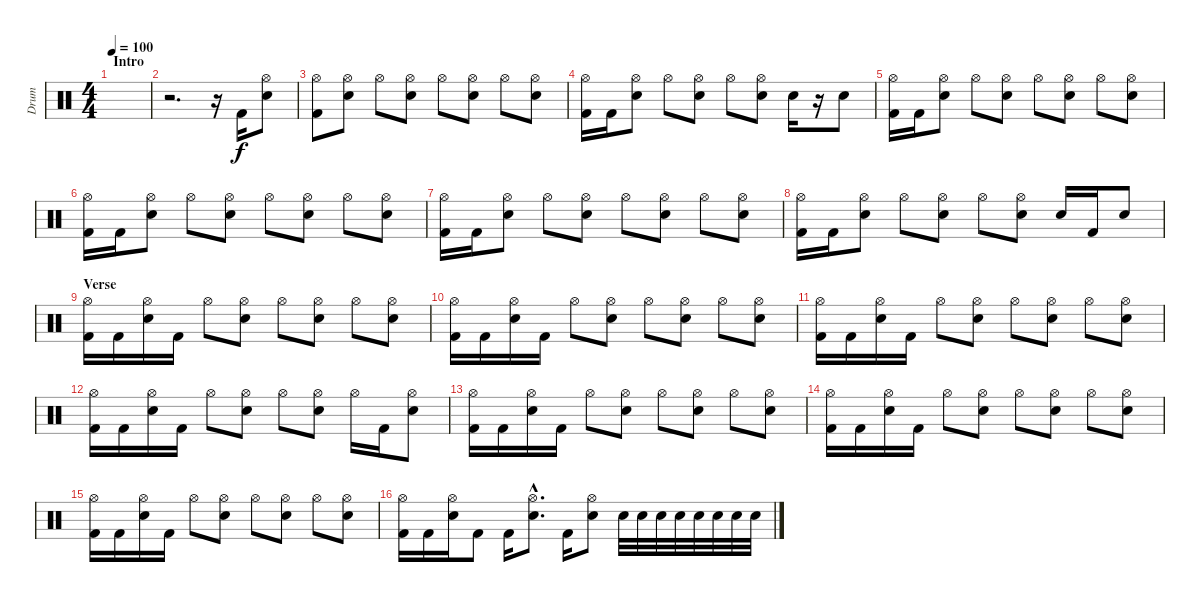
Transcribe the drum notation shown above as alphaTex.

\track ("Drum" "Drum") {instrument percussion}
\staff {score}
\articulation defaults
\ts (4 4)
\section ("" "Intro")
\tempo 100
\clef neutral
\ks c
|
r.2{d} r.16 "Kick (hit) 2".16 ("Hi-Hat (open)" "Electric Snare (hit)").8 |
("Hi-Hat (open)" "Kick (hit) 2").8 ("Hi-Hat (open)" "Electric Snare (hit)").8 "Hi-Hat (open)".8 ("Hi-Hat (open)" "Electric Snare (hit)").8 "Hi-Hat (open)".8 ("Hi-Hat (open)" "Electric Snare (hit)").8 "Hi-Hat (open)".8 ("Hi-Hat (open)" "Electric Snare (hit)").8 |
("Hi-Hat (open)" "Kick (hit) 2").16 "Kick (hit) 2".16 ("Hi-Hat (open)" "Electric Snare (hit)").8 "Hi-Hat (open)".8 ("Hi-Hat (open)" "Electric Snare (hit)").8 "Hi-Hat (open)".8 ("Hi-Hat (open)" "Electric Snare (hit)").8 "Electric Snare (hit)".16 r.16 "Electric Snare (hit)".8 |
("Hi-Hat (open)" "Kick (hit) 2").16 "Kick (hit) 2".16 ("Hi-Hat (open)" "Electric Snare (hit)").8 "Hi-Hat (open)".8 ("Hi-Hat (open)" "Electric Snare (hit)").8 "Hi-Hat (open)".8 ("Hi-Hat (open)" "Electric Snare (hit)").8 "Hi-Hat (open)".8 ("Hi-Hat (open)" "Electric Snare (hit)").8 |
("Hi-Hat (open)" "Kick (hit) 2").16 "Kick (hit) 2".16 ("Hi-Hat (open)" "Electric Snare (hit)").8 "Hi-Hat (open)".8 ("Hi-Hat (open)" "Electric Snare (hit)").8 "Hi-Hat (open)".8 ("Hi-Hat (open)" "Electric Snare (hit)").8 "Hi-Hat (open)".8 ("Hi-Hat (open)" "Electric Snare (hit)").8 |
("Hi-Hat (open)" "Kick (hit) 2").16 "Kick (hit) 2".16 ("Hi-Hat (open)" "Electric Snare (hit)").8 "Hi-Hat (open)".8 ("Hi-Hat (open)" "Electric Snare (hit)").8 "Hi-Hat (open)".8 ("Hi-Hat (open)" "Electric Snare (hit)").8 "Hi-Hat (open)".8 ("Hi-Hat (open)" "Electric Snare (hit)").8 |
("Hi-Hat (open)" "Kick (hit) 2").16 "Kick (hit) 2".16 ("Hi-Hat (open)" "Electric Snare (hit)").8 "Hi-Hat (open)".8 ("Hi-Hat (open)" "Electric Snare (hit)").8 "Hi-Hat (open)".8 ("Hi-Hat (open)" "Electric Snare (hit)").8 "Electric Snare (hit)".16 "Kick (hit) 2".16 "Electric Snare (hit)".8 |
\section ("" "Verse")
("Hi-Hat (open)" "Kick (hit) 2").16 "Kick (hit) 2".16 ("Hi-Hat (open)" "Electric Snare (hit)").16 "Kick (hit) 2".16 "Hi-Hat (open)".8 ("Hi-Hat (open)" "Electric Snare (hit)").8 "Hi-Hat (open)".8 ("Hi-Hat (open)" "Electric Snare (hit)").8 "Hi-Hat (open)".8 ("Hi-Hat (open)" "Electric Snare (hit)").8 |
("Hi-Hat (open)" "Kick (hit) 2").16 "Kick (hit) 2".16 ("Hi-Hat (open)" "Electric Snare (hit)").16 "Kick (hit) 2".16 "Hi-Hat (open)".8 ("Hi-Hat (open)" "Electric Snare (hit)").8 "Hi-Hat (open)".8 ("Hi-Hat (open)" "Electric Snare (hit)").8 "Hi-Hat (open)".8 ("Hi-Hat (open)" "Electric Snare (hit)").8 |
("Hi-Hat (open)" "Kick (hit) 2").16 "Kick (hit) 2".16 ("Hi-Hat (open)" "Electric Snare (hit)").16 "Kick (hit) 2".16 "Hi-Hat (open)".8 ("Hi-Hat (open)" "Electric Snare (hit)").8 "Hi-Hat (open)".8 ("Hi-Hat (open)" "Electric Snare (hit)").8 "Hi-Hat (open)".8 ("Hi-Hat (open)" "Electric Snare (hit)").8 |
("Hi-Hat (open)" "Kick (hit) 2").16 "Kick (hit) 2".16 ("Hi-Hat (open)" "Electric Snare (hit)").16 "Kick (hit) 2".16 "Hi-Hat (open)".8 ("Hi-Hat (open)" "Electric Snare (hit)").8 "Hi-Hat (open)".8 ("Hi-Hat (open)" "Electric Snare (hit)").8 "Hi-Hat (open)".16 "Kick (hit) 2".16 ("Hi-Hat (open)" "Electric Snare (hit)").8 |
("Hi-Hat (open)" "Kick (hit) 2").16 "Kick (hit) 2".16 ("Hi-Hat (open)" "Electric Snare (hit)").16 "Kick (hit) 2".16 "Hi-Hat (open)".8 ("Hi-Hat (open)" "Electric Snare (hit)").8 "Hi-Hat (open)".8 ("Hi-Hat (open)" "Electric Snare (hit)").8 "Hi-Hat (open)".8 ("Hi-Hat (open)" "Electric Snare (hit)").8 |
("Hi-Hat (open)" "Kick (hit) 2").16 "Kick (hit) 2".16 ("Hi-Hat (open)" "Electric Snare (hit)").16 "Kick (hit) 2".16 "Hi-Hat (open)".8 ("Hi-Hat (open)" "Electric Snare (hit)").8 "Hi-Hat (open)".8 ("Hi-Hat (open)" "Electric Snare (hit)").8 "Hi-Hat (open)".8 ("Hi-Hat (open)" "Electric Snare (hit)").8 |
("Hi-Hat (open)" "Kick (hit) 2").16 "Kick (hit) 2".16 ("Hi-Hat (open)" "Electric Snare (hit)").16 "Kick (hit) 2".16 "Hi-Hat (open)".8 ("Hi-Hat (open)" "Electric Snare (hit)").8 "Hi-Hat (open)".8 ("Hi-Hat (open)" "Electric Snare (hit)").8 "Hi-Hat (open)".8 ("Hi-Hat (open)" "Electric Snare (hit)").8 |
("Hi-Hat (open)" "Kick (hit) 2").16 "Kick (hit) 2".16 ("Hi-Hat (open)" "Electric Snare (hit)").16 "Kick (hit) 2".8 "Kick (hit) 2".16 ("Hi-Hat (open)"{hac} "Electric Snare (hit)"{hac}).8{d} "Kick (hit) 2".16 ("Hi-Hat (open)" "Electric Snare (hit)").8 "Electric Snare (hit)".32 "Electric Snare (hit)".32 "Electric Snare (hit)".32 "Electric Snare (hit)".32 "Electric Snare (hit)".32 "Electric Snare (hit)".32 "Electric Snare (hit)".32 "Electric Snare (hit)".32
